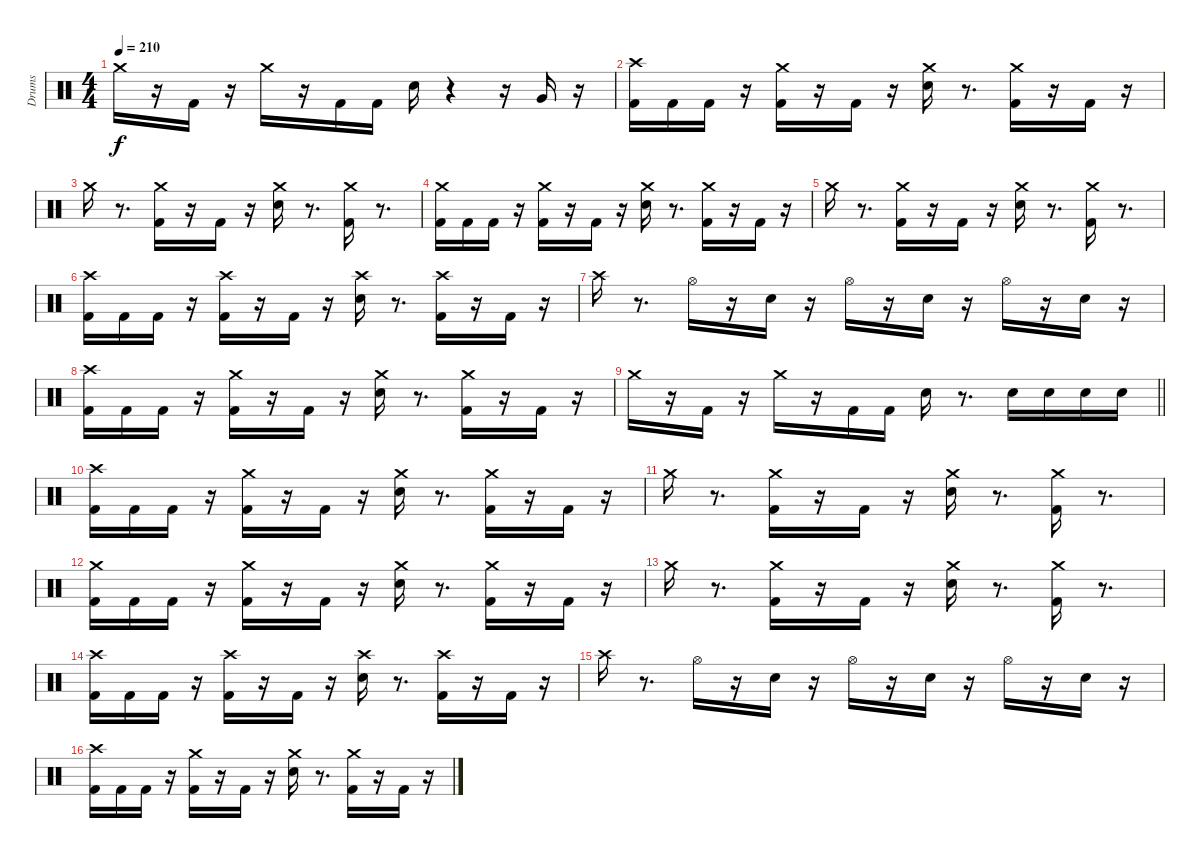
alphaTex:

\track ("Drums" "Drums") {instrument percussion}
\staff {score}
\articulation defaults
\ts (4 4)
\tempo 210
\clef neutral
\ks c "Crash medium (hit)".16{dy f}
r.16 "Kick (hit) 2".16 r.16 "Crash medium (hit)".16 r.16 "Kick (hit) 2".16 "Kick (hit) 2".16 "Snare (hit) 2".16 r.4 r.16 "Very Low Tom (hit)".16 r.16 |
("Kick (hit) 2" "Crash high (hit)").16 "Kick (hit) 2".16 "Kick (hit) 2".16 r.16 ("Kick (hit) 2" "Crash medium (hit)").16 r.16 "Kick (hit) 2".16 r.16 ("Snare (hit) 2" "Crash medium (hit)").16 r.8{d} ("Kick (hit) 2" "Crash medium (hit)").16 r.16 "Kick (hit) 2".16 r.16 |
"Crash medium (hit)".16 r.8{d} ("Kick (hit) 2" "Crash medium (hit)").16 r.16 "Kick (hit) 2".16 r.16 ("Snare (hit) 2" "Crash medium (hit)").16 r.8{d} ("Kick (hit) 2" "Crash medium (hit)").16 r.8{d} |
("Kick (hit) 2" "Crash medium (hit)").16 "Kick (hit) 2".16 "Kick (hit) 2".16 r.16 ("Kick (hit) 2" "Crash medium (hit)").16 r.16 "Kick (hit) 2".16 r.16 ("Snare (hit) 2" "Crash medium (hit)").16 r.8{d} ("Kick (hit) 2" "Crash medium (hit)").16 r.16 "Kick (hit) 2".16 r.16 |
"Crash medium (hit)".16 r.8{d} ("Kick (hit) 2" "Crash medium (hit)").16 r.16 "Kick (hit) 2".16 r.16 ("Snare (hit) 2" "Crash medium (hit)").16 r.8{d} ("Kick (hit) 2" "Crash medium (hit)").16 r.8{d} |
("Kick (hit) 2" "Crash high (hit)").16 "Kick (hit) 2".16 "Kick (hit) 2".16 r.16 ("Kick (hit) 2" "Crash high (hit)").16 r.16 "Kick (hit) 2".16 r.16 ("Snare (hit) 2" "Crash high (hit)").16 r.8{d} ("Kick (hit) 2" "Crash high (hit)").16 r.16 "Kick (hit) 2".16 r.16 |
"Crash high (hit)".16 r.8{d} "Hi-Hat (open)".16 r.16 "Snare (hit) 2".16 r.16 "Hi-Hat (open)".16 r.16 "Snare (hit) 2".16 r.16 "Hi-Hat (open)".16 r.16 "Snare (hit) 2".16 r.16 |
("Kick (hit) 2" "Crash high (hit)").16 "Kick (hit) 2".16 "Kick (hit) 2".16 r.16 ("Kick (hit) 2" "Crash medium (hit)").16 r.16 "Kick (hit) 2".16 r.16 ("Snare (hit) 2" "Crash medium (hit)").16 r.8{d} ("Kick (hit) 2" "Crash medium (hit)").16 r.16 "Kick (hit) 2".16 r.16 |
\barLineRight lightlight "Crash medium (hit)".16
r.16 "Kick (hit) 2".16 r.16 "Crash medium (hit)".16 r.16 "Kick (hit) 2".16 "Kick (hit) 2".16 "Snare (hit) 2".16 r.8{d} "Snare (hit) 2".16 "Snare (hit) 2".16 "Snare (hit) 2".16 "Snare (hit) 2".16 |
\section ("" " ")
("Kick (hit) 2" "Crash high (hit)").16 "Kick (hit) 2".16 "Kick (hit) 2".16 r.16 ("Kick (hit) 2" "Crash medium (hit)").16 r.16 "Kick (hit) 2".16 r.16 ("Snare (hit) 2" "Crash medium (hit)").16 r.8{d} ("Kick (hit) 2" "Crash medium (hit)").16 r.16 "Kick (hit) 2".16 r.16 |
"Crash medium (hit)".16 r.8{d} ("Kick (hit) 2" "Crash medium (hit)").16 r.16 "Kick (hit) 2".16 r.16 ("Snare (hit) 2" "Crash medium (hit)").16 r.8{d} ("Kick (hit) 2" "Crash medium (hit)").16 r.8{d} |
("Kick (hit) 2" "Crash medium (hit)").16 "Kick (hit) 2".16 "Kick (hit) 2".16 r.16 ("Kick (hit) 2" "Crash medium (hit)").16 r.16 "Kick (hit) 2".16 r.16 ("Snare (hit) 2" "Crash medium (hit)").16 r.8{d} ("Kick (hit) 2" "Crash medium (hit)").16 r.16 "Kick (hit) 2".16 r.16 |
"Crash medium (hit)".16 r.8{d} ("Kick (hit) 2" "Crash medium (hit)").16 r.16 "Kick (hit) 2".16 r.16 ("Snare (hit) 2" "Crash medium (hit)").16 r.8{d} ("Kick (hit) 2" "Crash medium (hit)").16 r.8{d} |
("Kick (hit) 2" "Crash high (hit)").16 "Kick (hit) 2".16 "Kick (hit) 2".16 r.16 ("Kick (hit) 2" "Crash high (hit)").16 r.16 "Kick (hit) 2".16 r.16 ("Snare (hit) 2" "Crash high (hit)").16 r.8{d} ("Kick (hit) 2" "Crash high (hit)").16 r.16 "Kick (hit) 2".16 r.16 |
"Crash high (hit)".16 r.8{d} "Hi-Hat (open)".16 r.16 "Snare (hit) 2".16 r.16 "Hi-Hat (open)".16 r.16 "Snare (hit) 2".16 r.16 "Hi-Hat (open)".16 r.16 "Snare (hit) 2".16 r.16 |
("Kick (hit) 2" "Crash high (hit)").16 "Kick (hit) 2".16 "Kick (hit) 2".16 r.16 ("Kick (hit) 2" "Crash medium (hit)").16 r.16 "Kick (hit) 2".16 r.16 ("Snare (hit) 2" "Crash medium (hit)").16 r.8{d} ("Kick (hit) 2" "Crash medium (hit)").16 r.16 "Kick (hit) 2".16 r.16
